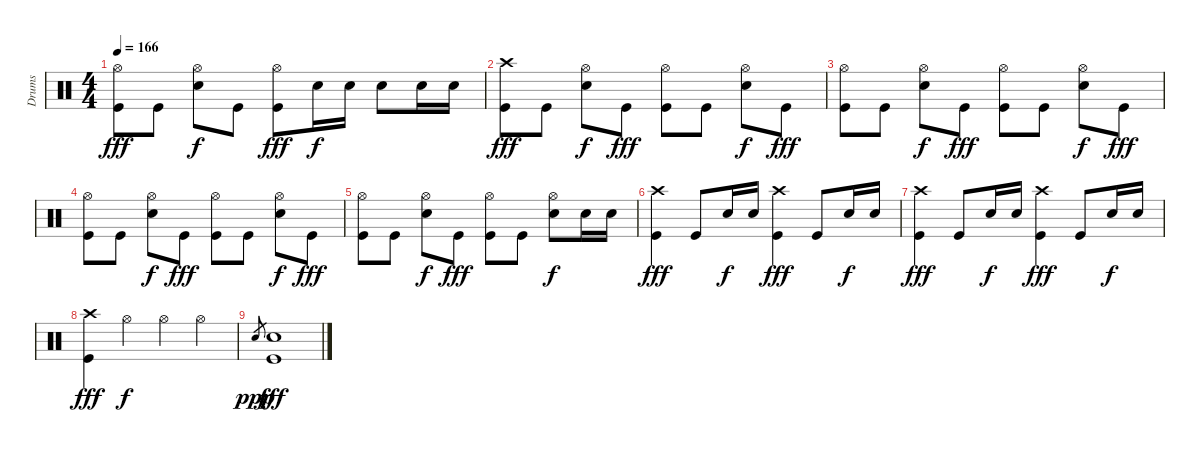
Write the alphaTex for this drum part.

\track ("Drums" "Drums") {instrument percussion}
\staff {score}
\articulation defaults
\ts (4 4)
\tempo 166
\clef neutral
\ks c
("Hi-Hat (open)" "Kick (hit)").8{dy fff} "Kick (hit)".8 ("Hi-Hat (open)" "Snare (hit) 2").8{dy f} "Kick (hit)".8 ("Hi-Hat (open)" "Kick (hit)").8{dy fff} "Snare (hit) 2".16{dy f} "Snare (hit) 2".16 "Snare (hit) 2".8 "Snare (hit) 2".16 "Snare (hit) 2".16 |
("Crash high (hit)" "Kick (hit)").8{dy fff} "Kick (hit)".8 ("Hi-Hat (open)" "Snare (hit) 2").8{dy f} "Kick (hit)".8{dy fff} ("Hi-Hat (open)" "Kick (hit)").8 "Kick (hit)".8 ("Hi-Hat (open)" "Snare (hit) 2").8{dy f} "Kick (hit)".8{dy fff} |
("Hi-Hat (open)" "Kick (hit)").8 "Kick (hit)".8 ("Hi-Hat (open)" "Snare (hit) 2").8{dy f} "Kick (hit)".8{dy fff} ("Hi-Hat (open)" "Kick (hit)").8 "Kick (hit)".8 ("Hi-Hat (open)" "Snare (hit) 2").8{dy f} "Kick (hit)".8{dy fff} |
("Hi-Hat (open)" "Kick (hit)").8 "Kick (hit)".8 ("Hi-Hat (open)" "Snare (hit) 2").8{dy f} "Kick (hit)".8{dy fff} ("Hi-Hat (open)" "Kick (hit)").8 "Kick (hit)".8 ("Hi-Hat (open)" "Snare (hit) 2").8{dy f} "Kick (hit)".8{dy fff} |
("Hi-Hat (open)" "Kick (hit)").8 "Kick (hit)".8 ("Hi-Hat (open)" "Snare (hit) 2").8{dy f} "Kick (hit)".8{dy fff} ("Hi-Hat (open)" "Kick (hit)").8 "Kick (hit)".8 ("Hi-Hat (open)" "Snare (hit) 2").8{dy f} "Snare (hit) 2".16 "Snare (hit) 2".16 |
("Crash high (hit)" "Kick (hit)").4{dy fff} "Kick (hit)".8 "Snare (hit) 2".16{dy f} "Snare (hit) 2".16 ("Crash high (hit)" "Kick (hit)").4{dy fff} "Kick (hit)".8 "Snare (hit) 2".16{dy f} "Snare (hit) 2".16 |
("Crash high (hit)" "Kick (hit)").4{dy fff} "Kick (hit)".8 "Snare (hit) 2".16{dy f} "Snare (hit) 2".16 ("Crash high (hit)" "Kick (hit)").4{dy fff} "Kick (hit)".8 "Snare (hit) 2".16{dy f} "Snare (hit) 2".16 |
("Crash high (hit)" "Kick (hit)").4{dy fff} "Hi-Hat (open)".4{dy f} "Hi-Hat (open)".4 "Hi-Hat (open)".4 |
"Snare (hit) 2"{h}.8{gr dy ppp} ("Snare (hit) 2" "Kick (hit)").1{dy fff}
